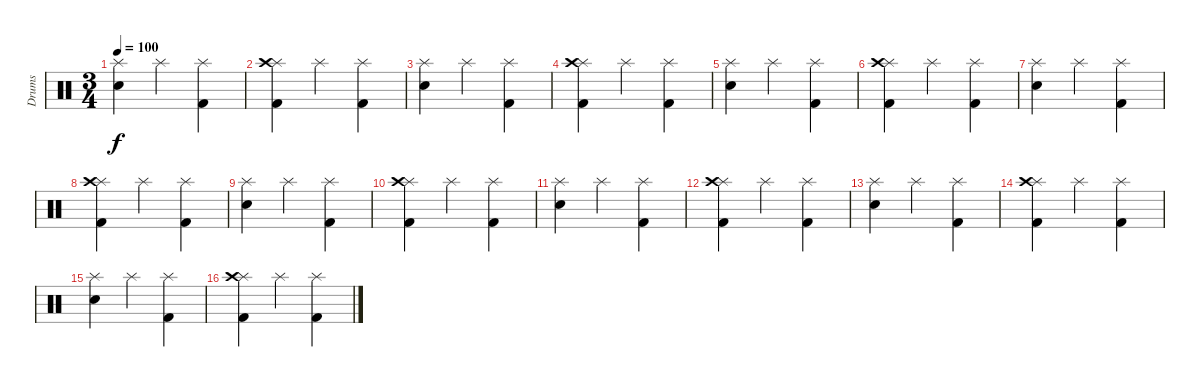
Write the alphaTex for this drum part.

\track ("Drums" "Drums") {instrument percussion}
\staff {score}
\articulation defaults
\ts (3 4)
\tempo 100
\clef neutral
\ks c
("Splash (hit)" "Electric Snare (hit)").4{dy f} "Splash (hit)".4 ("Splash (hit)" "Kick (hit) 2").4 |
("Splash (hit)" "Crash high (hit)" "Kick (hit) 2").4 "Splash (hit)".4 ("Splash (hit)" "Kick (hit) 2").4 |
("Splash (hit)" "Electric Snare (hit)").4 "Splash (hit)".4 ("Splash (hit)" "Kick (hit) 2").4 |
("Splash (hit)" "Crash high (hit)" "Kick (hit) 2").4 "Splash (hit)".4 ("Splash (hit)" "Kick (hit) 2").4 |
("Splash (hit)" "Electric Snare (hit)").4 "Splash (hit)".4 ("Splash (hit)" "Kick (hit) 2").4 |
("Splash (hit)" "Crash high (hit)" "Kick (hit) 2").4 "Splash (hit)".4 ("Splash (hit)" "Kick (hit) 2").4 |
("Splash (hit)" "Electric Snare (hit)").4 "Splash (hit)".4 ("Splash (hit)" "Kick (hit) 2").4 |
("Splash (hit)" "Crash high (hit)" "Kick (hit) 2").4 "Splash (hit)".4 ("Splash (hit)" "Kick (hit) 2").4 |
("Splash (hit)" "Electric Snare (hit)").4 "Splash (hit)".4 ("Splash (hit)" "Kick (hit) 2").4 |
("Splash (hit)" "Crash high (hit)" "Kick (hit) 2").4 "Splash (hit)".4 ("Splash (hit)" "Kick (hit) 2").4 |
("Splash (hit)" "Electric Snare (hit)").4 "Splash (hit)".4 ("Splash (hit)" "Kick (hit) 2").4 |
("Splash (hit)" "Crash high (hit)" "Kick (hit) 2").4 "Splash (hit)".4 ("Splash (hit)" "Kick (hit) 2").4 |
("Splash (hit)" "Electric Snare (hit)").4 "Splash (hit)".4 ("Splash (hit)" "Kick (hit) 2").4 |
("Splash (hit)" "Crash high (hit)" "Kick (hit) 2").4 "Splash (hit)".4 ("Splash (hit)" "Kick (hit) 2").4 |
("Splash (hit)" "Electric Snare (hit)").4 "Splash (hit)".4 ("Splash (hit)" "Kick (hit) 2").4 |
("Splash (hit)" "Crash high (hit)" "Kick (hit) 2").4 "Splash (hit)".4 ("Splash (hit)" "Kick (hit) 2").4
